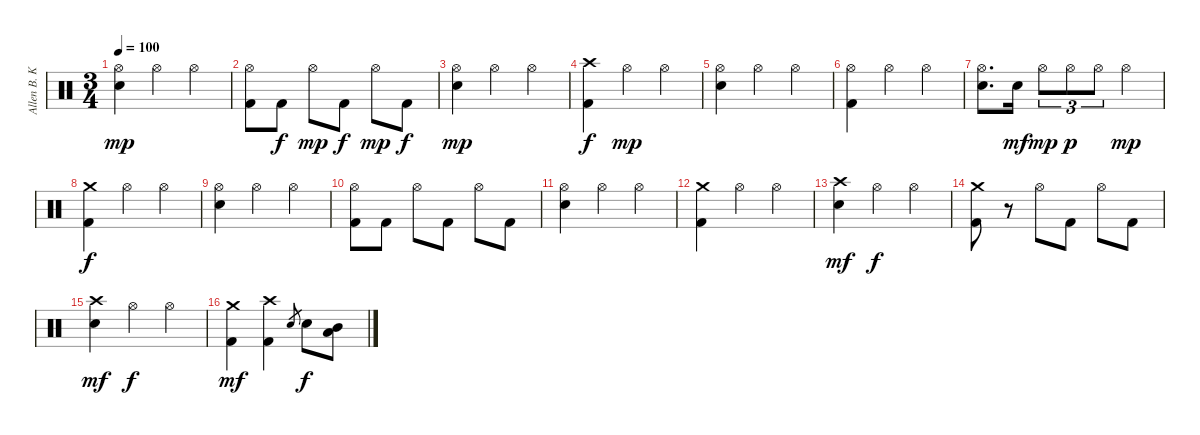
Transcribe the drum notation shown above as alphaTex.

\track ("Allen B. Konstanz (Drums)" "Allen B. K") {instrument percussion}
\staff {score}
\articulation defaults
\ts (3 4)
\tempo 100
\clef neutral
\ks c
("Hi-Hat (open)" "Snare (hit) 2").4{dy mp} "Hi-Hat (open)".4 "Hi-Hat (open)".4 |
("Hi-Hat (open)" "Kick (hit) 2").8 "Kick (hit) 2".8{dy f} "Hi-Hat (open)".8{dy mp} "Kick (hit) 2".8{dy f} "Hi-Hat (open)".8{dy mp} "Kick (hit) 2".8{dy f} |
("Hi-Hat (open)" "Snare (hit) 2").4{dy mp} "Hi-Hat (open)".4 "Hi-Hat (open)".4 |
("Crash high (hit)" "Kick (hit) 2").4{dy f} "Hi-Hat (open)".4{dy mp} "Hi-Hat (open)".4 |
("Hi-Hat (open)" "Snare (hit) 2").4 "Hi-Hat (open)".4 "Hi-Hat (open)".4 |
("Hi-Hat (open)" "Kick (hit) 2").4 "Hi-Hat (open)".4 "Hi-Hat (open)".4 |
("Hi-Hat (open)" "Snare (hit) 2").8{d} "Snare (hit) 2".16{dy mf} "Hi-Hat (open)".8{tu (3 2) dy mp} "Hi-Hat (open)".8{tu (3 2) dy p} "Hi-Hat (open)".8{tu (3 2)} "Hi-Hat (open)".4{dy mp} |
("Crash medium (hit)" "Kick (hit) 2").4{dy f} "Hi-Hat (open)".4 "Hi-Hat (open)".4 |
("Hi-Hat (open)" "Snare (hit) 2").4 "Hi-Hat (open)".4 "Hi-Hat (open)".4 |
("Hi-Hat (open)" "Kick (hit) 2").8 "Kick (hit) 2".8 "Hi-Hat (open)".8 "Kick (hit) 2".8 "Hi-Hat (open)".8 "Kick (hit) 2".8 |
("Hi-Hat (open)" "Snare (hit) 2").4 "Hi-Hat (open)".4 "Hi-Hat (open)".4 |
("Crash medium (hit)" "Kick (hit) 2").4 "Hi-Hat (open)".4 "Hi-Hat (open)".4 |
("Crash high (hit)" "Snare (hit) 2").4{dy mf} "Hi-Hat (open)".4{dy f} "Hi-Hat (open)".4 |
("Crash medium (hit)" "Kick (hit) 2").8 r.8 "Hi-Hat (open)".8 "Kick (hit) 2".8 "Hi-Hat (open)".8 "Kick (hit) 2".8 |
("Crash high (hit)" "Snare (hit) 2").4{dy mf} "Hi-Hat (open)".4{dy f} "Hi-Hat (open)".4 |
("Crash medium (hit)" "Kick (hit) 2").4{dy mf} ("Crash high (hit)" "Kick (hit) 2").4 "Snare (hit) 2".8{gr} "Snare (hit) 2".8{dy f} ("Mid Tom (hit)" "Low Tom (hit)").8
